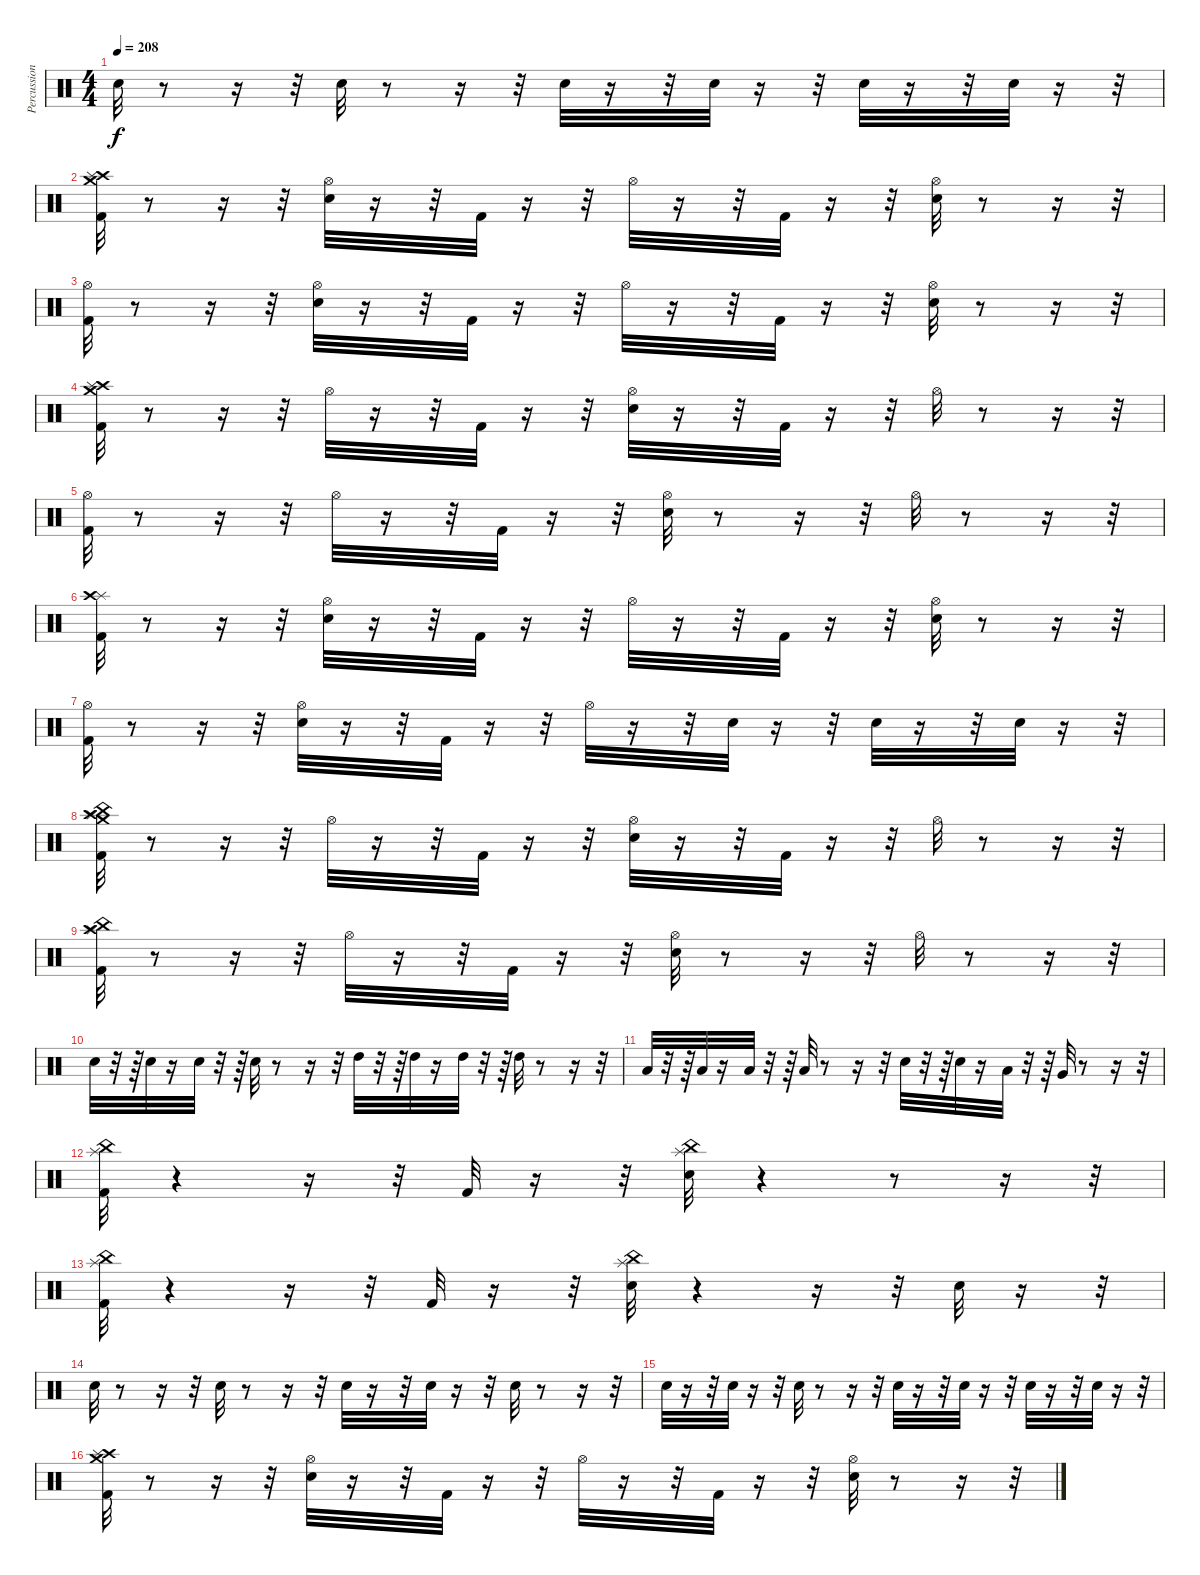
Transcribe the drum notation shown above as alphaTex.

\track ("Percussion" "Percussion") {instrument percussion}
\staff {score}
\articulation defaults
\ts (4 4)
\tempo 208
\clef neutral
\ks c "Snare (hit) 2".32{dy f}
r.8 r.16 r.32 "Snare (hit) 2".32 r.8 r.16 r.32 "Snare (hit) 2".32 r.16 r.32 "Snare (hit) 2".32 r.16 r.32 "Snare (hit) 2".32 r.16 r.32 "Snare (hit) 2".32 r.16 r.32 |
("Kick (hit) 2" "Crash high (hit)" "Crash medium (hit)" "Splash (hit)").32 r.8 r.16 r.32 ("Snare (hit) 2" "Hi-Hat (open)").32 r.16 r.32 "Kick (hit) 2".32 r.16 r.32 "Hi-Hat (open)".32 r.16 r.32 "Kick (hit) 2".32 r.16 r.32 ("Snare (hit) 2" "Hi-Hat (open)").32 r.8 r.16 r.32 |
("Kick (hit) 2" "Hi-Hat (open)").32 r.8 r.16 r.32 ("Snare (hit) 2" "Hi-Hat (open)").32 r.16 r.32 "Kick (hit) 2".32 r.16 r.32 "Hi-Hat (open)".32 r.16 r.32 "Kick (hit) 2".32 r.16 r.32 ("Snare (hit) 2" "Hi-Hat (open)").32 r.8 r.16 r.32 |
("Crash high (hit)" "Crash medium (hit)" "Splash (hit)" "Kick (hit) 2").32 r.8 r.16 r.32 "Hi-Hat (open)".32 r.16 r.32 "Kick (hit) 2".32 r.16 r.32 ("Hi-Hat (open)" "Snare (hit) 2").32 r.16 r.32 "Kick (hit) 2".32 r.16 r.32 "Hi-Hat (open)".32 r.8 r.16 r.32 |
("Hi-Hat (open)" "Kick (hit) 2").32 r.8 r.16 r.32 "Hi-Hat (open)".32 r.16 r.32 "Kick (hit) 2".32 r.16 r.32 ("Hi-Hat (open)" "Snare (hit) 2").32 r.8 r.16 r.32 "Hi-Hat (open)".32 r.8 r.16 r.32 |
("Splash (hit)" "Crash high (hit)" "Kick (hit) 2").32 r.8 r.16 r.32 ("Snare (hit) 2" "Hi-Hat (open)").32 r.16 r.32 "Kick (hit) 2".32 r.16 r.32 "Hi-Hat (open)".32 r.16 r.32 "Kick (hit) 2".32 r.16 r.32 ("Snare (hit) 2" "Hi-Hat (open)").32 r.8 r.16 r.32 |
("Kick (hit) 2" "Hi-Hat (open)").32 r.8 r.16 r.32 ("Snare (hit) 2" "Hi-Hat (open)").32 r.16 r.32 "Kick (hit) 2".32 r.16 r.32 "Hi-Hat (open)".32 r.16 r.32 "Snare (hit) 2".32 r.16 r.32 "Snare (hit) 2".32 r.16 r.32 "Snare (hit) 2".32 r.16 r.32 |
("China (hit)" "Kick (hit) 2" "Crash high (hit)" "Splash (hit)" "Crash medium (hit)").32 r.8 r.16 r.32 "Hi-Hat (open)".32 r.16 r.32 "Kick (hit) 2".32 r.16 r.32 ("Hi-Hat (open)" "Snare (hit) 2").32 r.16 r.32 "Kick (hit) 2".32 r.16 r.32 "Hi-Hat (open)".32 r.8 r.16 r.32 |
("China (hit)" "Splash (hit)" "Crash high (hit)" "Kick (hit) 2").32 r.8 r.16 r.32 "Hi-Hat (open)".32 r.16 r.32 "Kick (hit) 2".32 r.16 r.32 ("Snare (hit) 2" "Hi-Hat (open)").32 r.8 r.16 r.32 "Hi-Hat (open)".32 r.8 r.16 r.32 |
"Snare (hit) 2".32 r.32 r.64 "Snare (hit) 2".32 r.16 "Snare (hit) 2".32 r.32 r.64 "Snare (hit) 2".32 r.8 r.16 r.32 "High Tom (hit)".32 r.32 r.64 "High Tom (hit)".32 r.16 "High Tom (hit)".32 r.32 r.64 "High Tom (hit)".32 r.8 r.16 r.32 |
"Low Tom (hit)".32 r.32 r.64 "Low Tom (hit)".32 r.16 "Low Tom (hit)".32 r.32 r.64 "Low Tom (hit)".32 r.8 r.16 r.32 "Snare (hit) 2".32 r.32 r.64 "Snare (hit) 2".32 r.16 "Low Tom (hit)".32 r.32 r.64 "Very Low Tom (hit)".32 r.8 r.16 r.32 |
("Kick (hit) 2" "China (hit)" "Splash (hit)").32 r.4 r.16 r.32 "Kick (hit) 2".32 r.16 r.32 ("Snare (hit) 2" "China (hit)" "Splash (hit)").32 r.4 r.8 r.16 r.32 |
("Kick (hit) 2" "China (hit)" "Splash (hit)").32 r.4 r.16 r.32 "Kick (hit) 2".32 r.16 r.32 ("Snare (hit) 2" "China (hit)" "Splash (hit)").32 r.4 r.16 r.32 "Snare (hit) 2".32 r.16 r.32 |
"Snare (hit) 2".32 r.8 r.16 r.32 "Snare (hit) 2".32 r.8 r.16 r.32 "Snare (hit) 2".32 r.16 r.32 "Snare (hit) 2".32 r.16 r.32 "Snare (hit) 2".32 r.8 r.16 r.32 |
"Snare (hit) 2".32 r.16 r.32 "Snare (hit) 2".32 r.16 r.32 "Snare (hit) 2".32 r.8 r.16 r.32 "Snare (hit) 2".32 r.16 r.32 "Snare (hit) 2".32 r.16 r.32 "Snare (hit) 2".32 r.16 r.32 "Snare (hit) 2".32 r.16 r.32 |
("Kick (hit) 2" "Crash high (hit)" "Crash medium (hit)" "Splash (hit)").32 r.8 r.16 r.32 ("Snare (hit) 2" "Hi-Hat (open)").32 r.16 r.32 "Kick (hit) 2".32 r.16 r.32 "Hi-Hat (open)".32 r.16 r.32 "Kick (hit) 2".32 r.16 r.32 ("Snare (hit) 2" "Hi-Hat (open)").32 r.8 r.16 r.32
